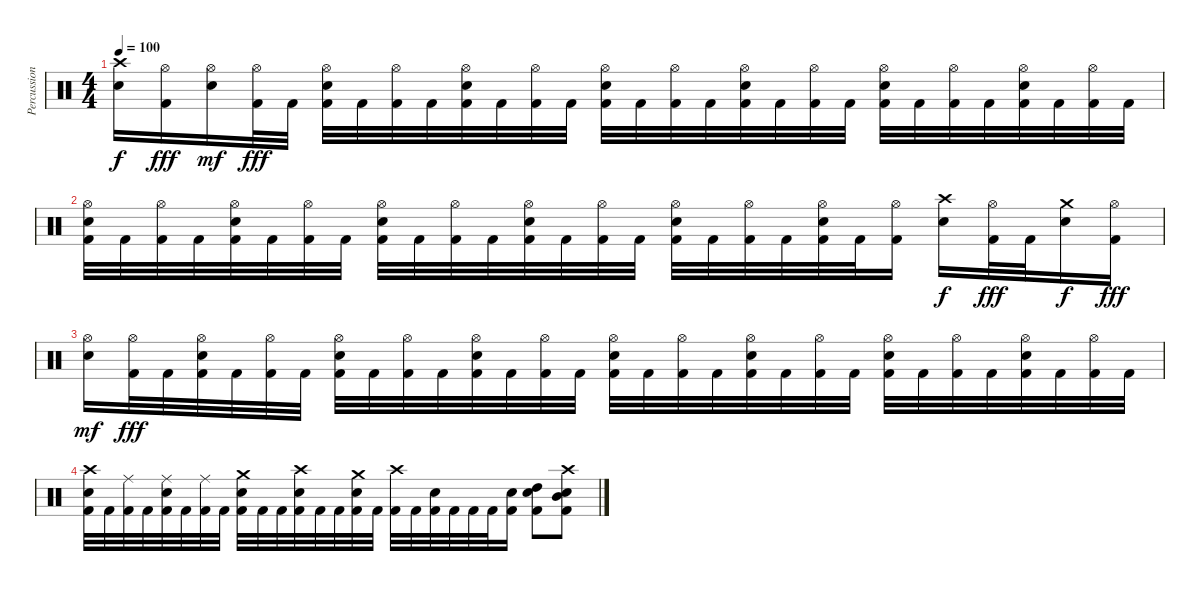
\track ("Percussion" "Percussion") {instrument percussion}
\staff {score}
\articulation defaults
\ts (4 4)
\tempo 100
\clef neutral
\ks c
("Crash high (hit)" "Snare (hit) 2").16{dy f} ("Hi-Hat (open)" "Kick (hit) 2").16{dy fff} ("Hi-Hat (open)" "Snare (hit) 2").16{dy mf} ("Hi-Hat (open)" "Kick (hit) 2").32{dy fff} "Kick (hit) 2".32 ("Hi-Hat (open)" "Snare (hit) 2" "Kick (hit) 2").32 "Kick (hit) 2".32 ("Hi-Hat (open)" "Kick (hit) 2").32 "Kick (hit) 2".32 ("Hi-Hat (open)" "Snare (hit) 2" "Kick (hit) 2").32 "Kick (hit) 2".32 ("Hi-Hat (open)" "Kick (hit) 2").32 "Kick (hit) 2".32 ("Hi-Hat (open)" "Snare (hit) 2" "Kick (hit) 2").32 "Kick (hit) 2".32 ("Hi-Hat (open)" "Kick (hit) 2").32 "Kick (hit) 2".32 ("Hi-Hat (open)" "Snare (hit) 2" "Kick (hit) 2").32 "Kick (hit) 2".32 ("Hi-Hat (open)" "Kick (hit) 2").32 "Kick (hit) 2".32 ("Hi-Hat (open)" "Snare (hit) 2" "Kick (hit) 2").32 "Kick (hit) 2".32 ("Hi-Hat (open)" "Kick (hit) 2").32 "Kick (hit) 2".32 ("Hi-Hat (open)" "Snare (hit) 2" "Kick (hit) 2").32 "Kick (hit) 2".32 ("Hi-Hat (open)" "Kick (hit) 2").32 "Kick (hit) 2".32 |
("Hi-Hat (open)" "Snare (hit) 2" "Kick (hit) 2").32 "Kick (hit) 2".32 ("Hi-Hat (open)" "Kick (hit) 2").32 "Kick (hit) 2".32 ("Hi-Hat (open)" "Snare (hit) 2" "Kick (hit) 2").32 "Kick (hit) 2".32 ("Hi-Hat (open)" "Kick (hit) 2").32 "Kick (hit) 2".32 ("Hi-Hat (open)" "Snare (hit) 2" "Kick (hit) 2").32 "Kick (hit) 2".32 ("Hi-Hat (open)" "Kick (hit) 2").32 "Kick (hit) 2".32 ("Hi-Hat (open)" "Snare (hit) 2" "Kick (hit) 2").32 "Kick (hit) 2".32 ("Hi-Hat (open)" "Kick (hit) 2").32 "Kick (hit) 2".32 ("Hi-Hat (open)" "Snare (hit) 2" "Kick (hit) 2").32 "Kick (hit) 2".32 ("Hi-Hat (open)" "Kick (hit) 2").32 "Kick (hit) 2".32 ("Hi-Hat (open)" "Snare (hit) 2" "Kick (hit) 2").32 "Kick (hit) 2".32 ("Hi-Hat (open)" "Kick (hit) 2").16 ("Crash high (hit)" "Snare (hit) 2").16{dy f} ("Hi-Hat (open)" "Kick (hit) 2").32{dy fff} "Kick (hit) 2".32 ("Crash medium (hit)" "Snare (hit) 2").16{dy f} ("Hi-Hat (open)" "Kick (hit) 2").16{dy fff} |
("Hi-Hat (open)" "Snare (hit) 2").16{dy mf} ("Hi-Hat (open)" "Kick (hit) 2").32{dy fff} "Kick (hit) 2".32 ("Hi-Hat (open)" "Snare (hit) 2" "Kick (hit) 2").32 "Kick (hit) 2".32 ("Hi-Hat (open)" "Kick (hit) 2").32 "Kick (hit) 2".32 ("Hi-Hat (open)" "Snare (hit) 2" "Kick (hit) 2").32 "Kick (hit) 2".32 ("Hi-Hat (open)" "Kick (hit) 2").32 "Kick (hit) 2".32 ("Hi-Hat (open)" "Snare (hit) 2" "Kick (hit) 2").32 "Kick (hit) 2".32 ("Hi-Hat (open)" "Kick (hit) 2").32 "Kick (hit) 2".32 ("Hi-Hat (open)" "Snare (hit) 2" "Kick (hit) 2").32 "Kick (hit) 2".32 ("Hi-Hat (open)" "Kick (hit) 2").32 "Kick (hit) 2".32 ("Hi-Hat (open)" "Snare (hit) 2" "Kick (hit) 2").32 "Kick (hit) 2".32 ("Hi-Hat (open)" "Kick (hit) 2").32 "Kick (hit) 2".32 ("Hi-Hat (open)" "Snare (hit) 2" "Kick (hit) 2").32 "Kick (hit) 2".32 ("Hi-Hat (open)" "Kick (hit) 2").32 "Kick (hit) 2".32 ("Hi-Hat (open)" "Snare (hit) 2" "Kick (hit) 2").32 "Kick (hit) 2".32 ("Hi-Hat (open)" "Kick (hit) 2").32 "Kick (hit) 2".32 |
("Crash high (hit)" "Snare (hit) 2" "Kick (hit) 2").32 "Kick (hit) 2".32 ("Ride (middle)" "Kick (hit) 2").32 "Kick (hit) 2".32 ("Ride (middle)" "Snare (hit) 2" "Kick (hit) 2").32 "Kick (hit) 2".32 ("Ride (middle)" "Kick (hit) 2").32 "Kick (hit) 2".32 ("Crash medium (hit)" "Snare (hit) 2" "Kick (hit) 2").32 "Kick (hit) 2".32 "Kick (hit) 2".32 ("Crash high (hit)" "Snare (hit) 2" "Kick (hit) 2").32 "Kick (hit) 2".32 "Kick (hit) 2".32 ("Crash medium (hit)" "Snare (hit) 2" "Kick (hit) 2").32 "Kick (hit) 2".32 ("Crash high (hit)" "Kick (hit) 2").32 "Kick (hit) 2".32 ("Snare (hit) 2" "Kick (hit) 2").32 "Kick (hit) 2".32 "Kick (hit) 2".32 "Kick (hit) 2".32 ("Snare (hit) 2" "Kick (hit) 2").16 ("High Tom (hit)" "Snare (hit) 2" "Kick (hit) 2").8 ("Crash high (hit)" "Mid Tom (hit)" "Snare (hit) 2" "Kick (hit) 2").8
